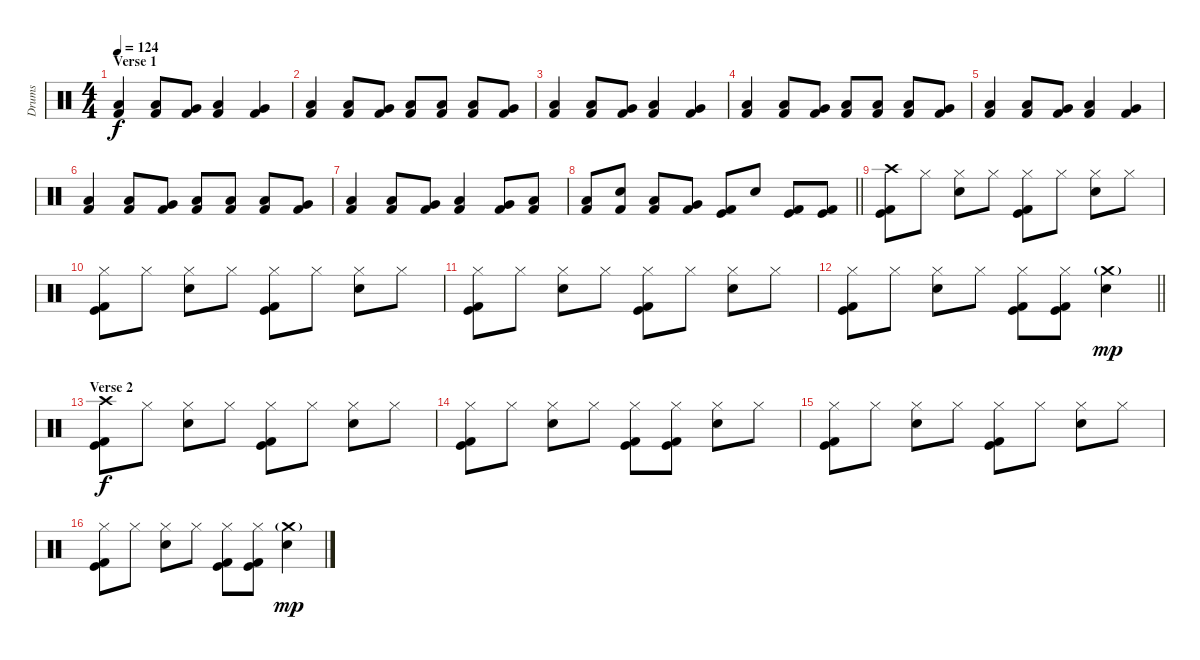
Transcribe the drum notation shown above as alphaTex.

\track ("Drums" "Drums") {instrument percussion}
\staff {score}
\articulation defaults
\ts (4 4)
\section ("" "Verse 1")
\tempo 124
\clef neutral
\ks c
("Kick (hit) 2" "Low Floor Tom (hit)").4{dy f} ("Kick (hit) 2" "Low Tom (hit)").8 ("Kick (hit) 2" "Very Low Tom (hit)").8 ("Kick (hit) 2" "Low Floor Tom (hit)").4 ("Kick (hit) 2" "Very Low Tom (hit)").4 |
("Kick (hit) 2" "Low Floor Tom (hit)").4 ("Kick (hit) 2" "Low Tom (hit)").8 ("Kick (hit) 2" "Very Low Tom (hit)").8 ("Kick (hit) 2" "Low Floor Tom (hit)").8 ("Kick (hit) 2" "Low Floor Tom (hit)").8 ("Kick (hit) 2" "Low Tom (hit)").8 ("Kick (hit) 2" "Very Low Tom (hit)").8 |
("Kick (hit) 2" "Low Floor Tom (hit)").4 ("Kick (hit) 2" "Low Tom (hit)").8 ("Kick (hit) 2" "Very Low Tom (hit)").8 ("Kick (hit) 2" "Low Floor Tom (hit)").4 ("Kick (hit) 2" "Very Low Tom (hit)").4 |
("Kick (hit) 2" "Low Floor Tom (hit)").4 ("Kick (hit) 2" "Low Tom (hit)").8 ("Kick (hit) 2" "Very Low Tom (hit)").8 ("Kick (hit) 2" "Low Floor Tom (hit)").8 ("Kick (hit) 2" "Low Floor Tom (hit)").8 ("Kick (hit) 2" "Low Tom (hit)").8 ("Kick (hit) 2" "Very Low Tom (hit)").8 |
("Kick (hit) 2" "Low Floor Tom (hit)").4 ("Kick (hit) 2" "Low Tom (hit)").8 ("Kick (hit) 2" "Very Low Tom (hit)").8 ("Kick (hit) 2" "Low Floor Tom (hit)").4 ("Kick (hit) 2" "Very Low Tom (hit)").4 |
("Kick (hit) 2" "Low Floor Tom (hit)").4 ("Kick (hit) 2" "Low Tom (hit)").8 ("Kick (hit) 2" "Very Low Tom (hit)").8 ("Kick (hit) 2" "Low Floor Tom (hit)").8 ("Kick (hit) 2" "Low Floor Tom (hit)").8 ("Kick (hit) 2" "Low Tom (hit)").8 ("Kick (hit) 2" "Very Low Tom (hit)").8 |
("Kick (hit) 2" "Low Floor Tom (hit)").4 ("Kick (hit) 2" "Low Tom (hit)").8 ("Kick (hit) 2" "Very Low Tom (hit)").8 ("Kick (hit) 2" "Low Floor Tom (hit)").4 ("Kick (hit) 2" "Very Low Tom (hit)").8 ("Kick (hit) 2" "Low Floor Tom (hit)").8 |
\barLineRight lightlight
("Kick (hit) 2" "Low Floor Tom (hit)").8 ("Kick (hit) 2" "Snare (hit)").8 ("Kick (hit) 2" "Low Floor Tom (hit)").8 ("Kick (hit) 2" "Very Low Tom (hit)").8 ("Kick (hit)" "Kick (hit) 2").8 "Electric Snare (hit)".8 ("Kick (hit)" "Kick (hit) 2").8 ("Kick (hit)" "Kick (hit) 2").8 |
("Crash high (hit)" "Kick (hit)" "Kick (hit) 2").8 "Hi-Hat (closed)".8 ("Hi-Hat (closed)" "Electric Snare (hit)").8 "Hi-Hat (closed)".8 ("Hi-Hat (closed)" "Kick (hit)" "Kick (hit) 2").8 "Hi-Hat (closed)".8 ("Hi-Hat (closed)" "Electric Snare (hit)").8 "Hi-Hat (closed)".8 |
("Hi-Hat (closed)" "Kick (hit)" "Kick (hit) 2").8 "Hi-Hat (closed)".8 ("Hi-Hat (closed)" "Electric Snare (hit)").8 "Hi-Hat (closed)".8 ("Hi-Hat (closed)" "Kick (hit)" "Kick (hit) 2").8 "Hi-Hat (closed)".8 ("Hi-Hat (closed)" "Electric Snare (hit)").8 "Hi-Hat (closed)".8 |
("Hi-Hat (closed)" "Kick (hit)" "Kick (hit) 2").8 "Hi-Hat (closed)".8 ("Hi-Hat (closed)" "Electric Snare (hit)").8 "Hi-Hat (closed)".8 ("Hi-Hat (closed)" "Kick (hit)" "Kick (hit) 2").8 "Hi-Hat (closed)".8 ("Hi-Hat (closed)" "Electric Snare (hit)").8 "Hi-Hat (closed)".8 |
\barLineRight lightlight
("Hi-Hat (closed)" "Kick (hit)" "Kick (hit) 2").8 "Hi-Hat (closed)".8 ("Hi-Hat (closed)" "Electric Snare (hit)").8 "Hi-Hat (closed)".8 ("Hi-Hat (closed)" "Kick (hit)" "Kick (hit) 2").8 ("Hi-Hat (closed)" "Kick (hit)" "Kick (hit) 2").8 ("Crash medium (hit)"{g} "Electric Snare (hit)").4{dy mp} |
\section ("" "Verse 2")
("Crash high (hit)" "Kick (hit)" "Kick (hit) 2").8{dy f} "Hi-Hat (closed)".8 ("Hi-Hat (closed)" "Electric Snare (hit)").8 "Hi-Hat (closed)".8 ("Hi-Hat (closed)" "Kick (hit)" "Kick (hit) 2").8 "Hi-Hat (closed)".8 ("Hi-Hat (closed)" "Electric Snare (hit)").8 "Hi-Hat (closed)".8 |
("Hi-Hat (closed)" "Kick (hit)" "Kick (hit) 2").8 "Hi-Hat (closed)".8 ("Hi-Hat (closed)" "Electric Snare (hit)").8 "Hi-Hat (closed)".8 ("Hi-Hat (closed)" "Kick (hit)" "Kick (hit) 2").8 ("Hi-Hat (closed)" "Kick (hit)" "Kick (hit) 2").8 ("Hi-Hat (closed)" "Electric Snare (hit)").8 "Hi-Hat (closed)".8 |
("Hi-Hat (closed)" "Kick (hit)" "Kick (hit) 2").8 "Hi-Hat (closed)".8 ("Hi-Hat (closed)" "Electric Snare (hit)").8 "Hi-Hat (closed)".8 ("Hi-Hat (closed)" "Kick (hit)" "Kick (hit) 2").8 "Hi-Hat (closed)".8 ("Hi-Hat (closed)" "Electric Snare (hit)").8 "Hi-Hat (closed)".8 |
("Hi-Hat (closed)" "Kick (hit)" "Kick (hit) 2").8 "Hi-Hat (closed)".8 ("Hi-Hat (closed)" "Electric Snare (hit)").8 "Hi-Hat (closed)".8 ("Hi-Hat (closed)" "Kick (hit)" "Kick (hit) 2").8 ("Hi-Hat (closed)" "Kick (hit)" "Kick (hit) 2").8 ("Crash medium (hit)"{g} "Electric Snare (hit)").4{dy mp}
